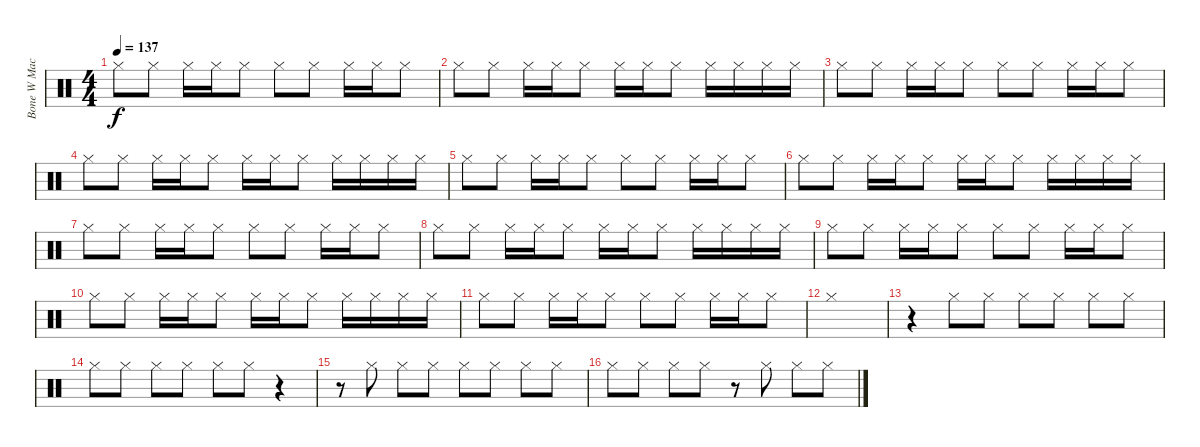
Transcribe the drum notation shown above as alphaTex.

\track ("Bone W Machine Cimbals" "Bone W Mac") {instrument percussion}
\staff {score}
\articulation defaults
\ts (4 4)
\tempo 137
\clef neutral
\ks c "Hi-Hat (closed)".8{dy f} "Hi-Hat (closed)".8 "Hi-Hat (closed)".16 "Hi-Hat (closed)".16 "Hi-Hat (closed)".8 "Hi-Hat (closed)".8 "Hi-Hat (closed)".8 "Hi-Hat (closed)".16 "Hi-Hat (closed)".16 "Hi-Hat (closed)".8
|
"Hi-Hat (closed)".8 "Hi-Hat (closed)".8 "Hi-Hat (closed)".16 "Hi-Hat (closed)".16 "Hi-Hat (closed)".8 "Hi-Hat (closed)".16 "Hi-Hat (closed)".16 "Hi-Hat (closed)".8 "Hi-Hat (closed)".16 "Hi-Hat (closed)".16 "Hi-Hat (closed)".16 "Hi-Hat (closed)".16 |
"Hi-Hat (closed)".8 "Hi-Hat (closed)".8 "Hi-Hat (closed)".16 "Hi-Hat (closed)".16 "Hi-Hat (closed)".8 "Hi-Hat (closed)".8 "Hi-Hat (closed)".8 "Hi-Hat (closed)".16 "Hi-Hat (closed)".16 "Hi-Hat (closed)".8 |
"Hi-Hat (closed)".8 "Hi-Hat (closed)".8 "Hi-Hat (closed)".16 "Hi-Hat (closed)".16 "Hi-Hat (closed)".8 "Hi-Hat (closed)".16 "Hi-Hat (closed)".16 "Hi-Hat (closed)".8 "Hi-Hat (closed)".16 "Hi-Hat (closed)".16 "Hi-Hat (closed)".16 "Hi-Hat (closed)".16 |
"Hi-Hat (closed)".8 "Hi-Hat (closed)".8 "Hi-Hat (closed)".16 "Hi-Hat (closed)".16 "Hi-Hat (closed)".8 "Hi-Hat (closed)".8 "Hi-Hat (closed)".8 "Hi-Hat (closed)".16 "Hi-Hat (closed)".16 "Hi-Hat (closed)".8 |
"Hi-Hat (closed)".8 "Hi-Hat (closed)".8 "Hi-Hat (closed)".16 "Hi-Hat (closed)".16 "Hi-Hat (closed)".8 "Hi-Hat (closed)".16 "Hi-Hat (closed)".16 "Hi-Hat (closed)".8 "Hi-Hat (closed)".16 "Hi-Hat (closed)".16 "Hi-Hat (closed)".16 "Hi-Hat (closed)".16 |
"Hi-Hat (closed)".8 "Hi-Hat (closed)".8 "Hi-Hat (closed)".16 "Hi-Hat (closed)".16 "Hi-Hat (closed)".8 "Hi-Hat (closed)".8 "Hi-Hat (closed)".8 "Hi-Hat (closed)".16 "Hi-Hat (closed)".16 "Hi-Hat (closed)".8 |
"Hi-Hat (closed)".8 "Hi-Hat (closed)".8 "Hi-Hat (closed)".16 "Hi-Hat (closed)".16 "Hi-Hat (closed)".8 "Hi-Hat (closed)".16 "Hi-Hat (closed)".16 "Hi-Hat (closed)".8 "Hi-Hat (closed)".16 "Hi-Hat (closed)".16 "Hi-Hat (closed)".16 "Hi-Hat (closed)".16 |
"Hi-Hat (closed)".8 "Hi-Hat (closed)".8 "Hi-Hat (closed)".16 "Hi-Hat (closed)".16 "Hi-Hat (closed)".8 "Hi-Hat (closed)".8 "Hi-Hat (closed)".8 "Hi-Hat (closed)".16 "Hi-Hat (closed)".16 "Hi-Hat (closed)".8 |
"Hi-Hat (closed)".8 "Hi-Hat (closed)".8 "Hi-Hat (closed)".16 "Hi-Hat (closed)".16 "Hi-Hat (closed)".8 "Hi-Hat (closed)".16 "Hi-Hat (closed)".16 "Hi-Hat (closed)".8 "Hi-Hat (closed)".16 "Hi-Hat (closed)".16 "Hi-Hat (closed)".16 "Hi-Hat (closed)".16 |
"Hi-Hat (closed)".8 "Hi-Hat (closed)".8 "Hi-Hat (closed)".16 "Hi-Hat (closed)".16 "Hi-Hat (closed)".8 "Hi-Hat (closed)".8 "Hi-Hat (closed)".8 "Hi-Hat (closed)".16 "Hi-Hat (closed)".16 "Hi-Hat (closed)".8 |
"Hi-Hat (closed)".1 |
r.4 "Hi-Hat (closed)".8 "Hi-Hat (closed)".8 "Hi-Hat (closed)".8 "Hi-Hat (closed)".8 "Hi-Hat (closed)".8 "Hi-Hat (closed)".8 |
"Hi-Hat (closed)".8 "Hi-Hat (closed)".8 "Hi-Hat (closed)".8 "Hi-Hat (closed)".8 "Hi-Hat (closed)".8 "Hi-Hat (closed)".8 r.4 |
r.8 "Hi-Hat (closed)".8 "Hi-Hat (closed)".8 "Hi-Hat (closed)".8 "Hi-Hat (closed)".8 "Hi-Hat (closed)".8 "Hi-Hat (closed)".8 "Hi-Hat (closed)".8 |
"Hi-Hat (closed)".8 "Hi-Hat (closed)".8 "Hi-Hat (closed)".8 "Hi-Hat (closed)".8 r.8 "Hi-Hat (closed)".8 "Hi-Hat (closed)".8 "Hi-Hat (closed)".8
